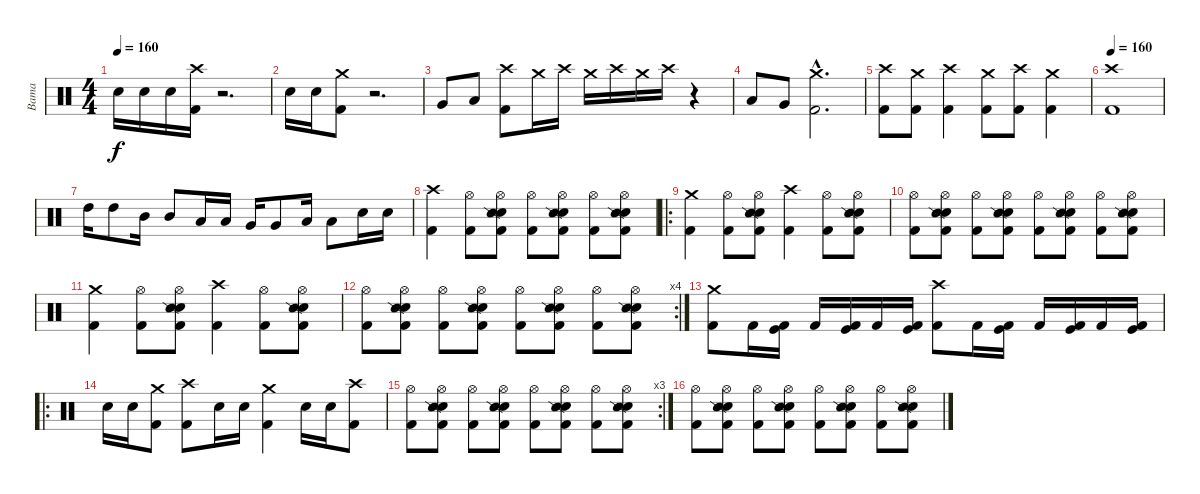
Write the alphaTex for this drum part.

\track ("Bama" "Bama") {instrument percussion}
\staff {score}
\articulation defaults
\ts (4 4)
\tempo 160
\tempo 130
\tempo 160
\clef neutral
\ks c "Electric Snare (hit)".16{dy f} "Electric Snare (hit)".16 "Electric Snare (hit)".16
("Crash high (hit)" "Kick (hit) 2").16 r.2{d} |
"Electric Snare (hit)".16 "Electric Snare (hit)".16 ("Crash medium (hit)" "Kick (hit) 2").8 r.2{d} |
"Very Low Tom (hit)".8 "Low Floor Tom (hit)".8 ("Crash high (hit)" "Kick (hit) 2").8 "Crash medium (hit)".16 "Crash high (hit)".16 "Crash medium (hit)".16 "Crash high (hit)".16 "Crash medium (hit)".16 "Crash high (hit)".16 r.4 |
"Low Tom (hit)".8 "Very Low Tom (hit)".8 ("Crash medium (hit)"{hac} "Kick (hit) 2"{hac}).2{d} |
("Crash high (hit)" "Kick (hit) 2").8 ("Crash medium (hit)" "Kick (hit) 2").8 ("Crash high (hit)" "Kick (hit) 2").4 ("Crash medium (hit)" "Kick (hit) 2").8 ("Crash high (hit)" "Kick (hit) 2").8 ("Crash medium (hit)" "Kick (hit) 2").4 |
\tempo 160
("Crash high (hit)" "Kick (hit) 2").1 |
"High Tom (hit)".16 "High Tom (hit)".8 "Mid Tom (hit)".16 "Mid Tom (hit)".8 "Low Tom (hit)".16 "Low Tom (hit)".16 "Very Low Tom (hit)".16 "Very Low Tom (hit)".8 "Low Floor Tom (hit)".16 "Low Floor Tom (hit)".8 "Electric Snare (hit)".16 "Electric Snare (hit)".16 |
("Crash high (hit)" "Kick (hit) 2").4 ("Hi-Hat (open)" "Kick (hit) 2").8 ("Hi-Hat (open)" "Electric Snare (hit)" "Snare (side stick) 2" "Kick (hit) 2").8 ("Hi-Hat (open)" "Kick (hit) 2").8 ("Hi-Hat (open)" "Electric Snare (hit)" "Snare (side stick) 2" "Kick (hit) 2").8 ("Hi-Hat (open)" "Kick (hit) 2").8 ("Hi-Hat (open)" "Electric Snare (hit)" "Snare (side stick) 2" "Kick (hit) 2").8 |
\ro
("Crash medium (hit)" "Kick (hit) 2").4 ("Hi-Hat (open)" "Kick (hit) 2").8 ("Hi-Hat (open)" "Electric Snare (hit)" "Snare (side stick) 2" "Kick (hit) 2").8 ("Crash high (hit)" "Kick (hit) 2").4 ("Hi-Hat (open)" "Kick (hit) 2").8 ("Hi-Hat (open)" "Electric Snare (hit)" "Snare (side stick) 2" "Kick (hit) 2").8 |
("Hi-Hat (open)" "Kick (hit) 2").8 ("Hi-Hat (open)" "Electric Snare (hit)" "Snare (side stick) 2" "Kick (hit) 2").8 ("Hi-Hat (open)" "Kick (hit) 2").8 ("Hi-Hat (open)" "Electric Snare (hit)" "Snare (side stick) 2" "Kick (hit) 2").8 ("Hi-Hat (open)" "Kick (hit) 2").8 ("Hi-Hat (open)" "Electric Snare (hit)" "Snare (side stick) 2" "Kick (hit) 2").8 ("Hi-Hat (open)" "Kick (hit) 2").8 ("Hi-Hat (open)" "Electric Snare (hit)" "Snare (side stick) 2" "Kick (hit) 2").8 |
("Crash medium (hit)" "Kick (hit) 2").4 ("Hi-Hat (open)" "Kick (hit) 2").8 ("Hi-Hat (open)" "Electric Snare (hit)" "Snare (side stick) 2" "Kick (hit) 2").8 ("Crash high (hit)" "Kick (hit) 2").4 ("Hi-Hat (open)" "Kick (hit) 2").8 ("Hi-Hat (open)" "Electric Snare (hit)" "Snare (side stick) 2" "Kick (hit) 2").8 |
\rc 4
("Hi-Hat (open)" "Kick (hit) 2").8 ("Hi-Hat (open)" "Electric Snare (hit)" "Snare (side stick) 2" "Kick (hit) 2").8 ("Hi-Hat (open)" "Kick (hit) 2").8 ("Hi-Hat (open)" "Electric Snare (hit)" "Snare (side stick) 2" "Kick (hit) 2").8 ("Hi-Hat (open)" "Kick (hit) 2").8 ("Hi-Hat (open)" "Electric Snare (hit)" "Snare (side stick) 2" "Kick (hit) 2").8 ("Hi-Hat (open)" "Kick (hit) 2").8 ("Hi-Hat (open)" "Electric Snare (hit)" "Snare (side stick) 2" "Kick (hit) 2").8 |
("Crash medium (hit)" "Kick (hit) 2").8 "Kick (hit) 2".16 ("Kick (hit)" "Kick (hit) 2").16 "Kick (hit) 2".16 ("Kick (hit)" "Kick (hit) 2").16 "Kick (hit) 2".16 ("Kick (hit)" "Kick (hit) 2").16 ("Crash high (hit)" "Kick (hit) 2").8 "Kick (hit) 2".16 ("Kick (hit)" "Kick (hit) 2").16 "Kick (hit) 2".16 ("Kick (hit)" "Kick (hit) 2").16 "Kick (hit) 2".16 ("Kick (hit)" "Kick (hit) 2").16 |
\ro "Electric Snare (hit)".16 "Electric Snare (hit)".16
("Crash medium (hit)" "Kick (hit) 2").8 ("Crash high (hit)" "Kick (hit) 2").8 "Electric Snare (hit)".16 "Electric Snare (hit)".16 ("Crash medium (hit)" "Kick (hit) 2").4 "Electric Snare (hit)".16 "Electric Snare (hit)".16 ("Crash high (hit)" "Kick (hit) 2").8 |
\rc 3
("Hi-Hat (open)" "Kick (hit) 2").8 ("Hi-Hat (open)" "Electric Snare (hit)" "Snare (side stick) 2" "Kick (hit) 2").8 ("Hi-Hat (open)" "Kick (hit) 2").8 ("Hi-Hat (open)" "Electric Snare (hit)" "Snare (side stick) 2" "Kick (hit) 2").8 ("Hi-Hat (open)" "Kick (hit) 2").8 ("Hi-Hat (open)" "Electric Snare (hit)" "Snare (side stick) 2" "Kick (hit) 2").8 ("Hi-Hat (open)" "Kick (hit) 2").8 ("Hi-Hat (open)" "Electric Snare (hit)" "Snare (side stick) 2" "Kick (hit) 2").8 |
("Hi-Hat (open)" "Kick (hit) 2").8 ("Hi-Hat (open)" "Electric Snare (hit)" "Snare (side stick) 2" "Kick (hit) 2").8 ("Hi-Hat (open)" "Kick (hit) 2").8 ("Hi-Hat (open)" "Electric Snare (hit)" "Snare (side stick) 2" "Kick (hit) 2").8 ("Hi-Hat (open)" "Kick (hit) 2").8 ("Hi-Hat (open)" "Electric Snare (hit)" "Snare (side stick) 2" "Kick (hit) 2").8 ("Hi-Hat (open)" "Kick (hit) 2").8 ("Hi-Hat (open)" "Electric Snare (hit)" "Snare (side stick) 2" "Kick (hit) 2").8
